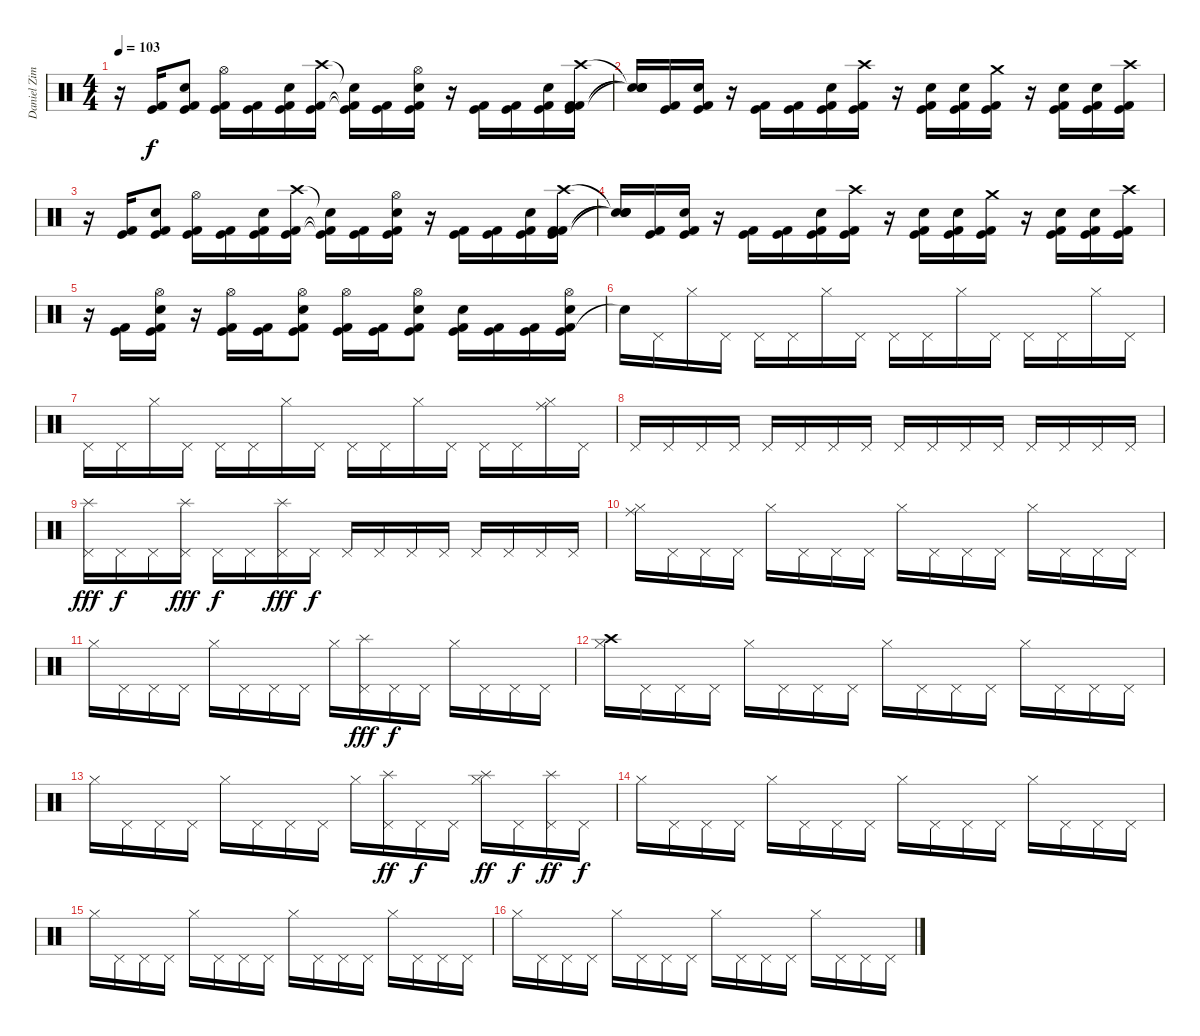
\track ("Daniel Zimmermann - Drums" "Daniel Zim") {instrument percussion}
\staff {score}
\articulation defaults
\ts (4 4)
\tempo 103
\clef neutral
\ks c
r.16{dy f} ("Kick (hit)" "Kick (hit) 2").16 ("Kick (hit)" "Kick (hit) 2" "Electric Snare (hit)").8 ("Kick (hit)" "Kick (hit) 2" "Hi-Hat (open)").16 ("Kick (hit)" "Kick (hit) 2").16 ("Kick (hit)" "Kick (hit) 2" "Electric Snare (hit)").16 ("Kick (hit)" "Kick (hit) 2" "Crash high (hit)").16 ("Kick (hit)"{t} "Kick (hit) 2"{t} "Snare (hit)"{t}).16 ("Kick (hit)" "Kick (hit) 2").16 ("Kick (hit)" "Kick (hit) 2" "Electric Snare (hit)" "Hi-Hat (open)").16 r.16 ("Kick (hit)" "Kick (hit) 2").16 ("Kick (hit)" "Kick (hit) 2").16 ("Kick (hit)" "Kick (hit) 2" "Electric Snare (hit)").16 ("Kick (hit)" "Kick (hit) 2" "Kick (hit) 2" "Crash high (hit)").16 |
("Snare (hit)"{t} "Snare (hit)"{t} "Snare (hit)"{t} "Snare (hit)"{t}).16 ("Kick (hit)" "Kick (hit) 2").16 ("Kick (hit)" "Kick (hit) 2" "Electric Snare (hit)").16 r.16 ("Kick (hit)" "Kick (hit) 2").16 ("Kick (hit)" "Kick (hit) 2").16 ("Kick (hit)" "Kick (hit) 2" "Electric Snare (hit)").16 ("Kick (hit)" "Kick (hit) 2" "Crash high (hit)").16 r.16 ("Kick (hit)" "Kick (hit) 2" "Electric Snare (hit)").16 ("Kick (hit)" "Kick (hit) 2" "Electric Snare (hit)").16 ("Kick (hit)" "Kick (hit) 2" "Crash medium (hit)").16 r.16 ("Kick (hit)" "Kick (hit) 2" "Electric Snare (hit)").16 ("Kick (hit)" "Kick (hit) 2" "Electric Snare (hit)").16 ("Kick (hit)" "Kick (hit) 2" "Crash high (hit)").16 |
r.16 ("Kick (hit)" "Kick (hit) 2").16 ("Kick (hit)" "Kick (hit) 2" "Electric Snare (hit)").8 ("Kick (hit)" "Kick (hit) 2" "Hi-Hat (open)").16 ("Kick (hit)" "Kick (hit) 2").16 ("Kick (hit)" "Kick (hit) 2" "Electric Snare (hit)").16 ("Kick (hit)" "Kick (hit) 2" "Crash high (hit)").16 ("Kick (hit)"{t} "Kick (hit) 2"{t} "Snare (hit)"{t}).16 ("Kick (hit)" "Kick (hit) 2").16 ("Kick (hit)" "Kick (hit) 2" "Electric Snare (hit)" "Hi-Hat (open)").16 r.16 ("Kick (hit)" "Kick (hit) 2").16 ("Kick (hit)" "Kick (hit) 2").16 ("Kick (hit)" "Kick (hit) 2" "Electric Snare (hit)").16 ("Kick (hit)" "Kick (hit) 2" "Kick (hit) 2" "Crash high (hit)").16 |
("Snare (hit)"{t} "Snare (hit)"{t} "Snare (hit)"{t} "Snare (hit)"{t}).16 ("Kick (hit)" "Kick (hit) 2").16 ("Kick (hit)" "Kick (hit) 2" "Electric Snare (hit)").16 r.16 ("Kick (hit)" "Kick (hit) 2").16 ("Kick (hit)" "Kick (hit) 2").16 ("Kick (hit)" "Kick (hit) 2" "Electric Snare (hit)").16 ("Kick (hit)" "Kick (hit) 2" "Crash high (hit)").16 r.16 ("Kick (hit)" "Kick (hit) 2" "Electric Snare (hit)").16 ("Kick (hit)" "Kick (hit) 2" "Electric Snare (hit)").16 ("Kick (hit)" "Kick (hit) 2" "Crash medium (hit)").16 r.16 ("Kick (hit)" "Kick (hit) 2" "Electric Snare (hit)").16 ("Kick (hit)" "Kick (hit) 2" "Electric Snare (hit)").16 ("Kick (hit)" "Kick (hit) 2" "Crash high (hit)").16 |
r.16 ("Kick (hit)" "Kick (hit) 2").16 ("Kick (hit)" "Kick (hit) 2" "Electric Snare (hit)" "Hi-Hat (open)").16 r.16 ("Kick (hit)" "Kick (hit) 2" "Hi-Hat (open)").16 ("Kick (hit)" "Kick (hit) 2").16 ("Kick (hit)" "Kick (hit) 2" "Electric Snare (hit)" "Hi-Hat (open)").8 ("Kick (hit)" "Kick (hit) 2" "Hi-Hat (open)").16 ("Kick (hit)" "Kick (hit) 2").16 ("Kick (hit)" "Kick (hit) 2" "Electric Snare (hit)" "Hi-Hat (open)").8 ("Kick (hit)" "Kick (hit) 2" "Electric Snare (hit)").16 ("Kick (hit)" "Kick (hit) 2").16 ("Kick (hit)" "Kick (hit) 2").16 ("Kick (hit)" "Kick (hit) 2" "Electric Snare (hit)" "Hi-Hat (open)").16 |
"Snare (hit)"{t}.16 "Pedal Hi-Hat (hit)".16 "Hi-Hat (closed)".16 "Pedal Hi-Hat (hit)".16 "Pedal Hi-Hat (hit)".16 "Pedal Hi-Hat (hit)".16 "Hi-Hat (closed)".16 "Pedal Hi-Hat (hit)".16 "Pedal Hi-Hat (hit)".16 "Pedal Hi-Hat (hit)".16 "Hi-Hat (closed)".16 "Pedal Hi-Hat (hit)".16 "Pedal Hi-Hat (hit)".16 "Pedal Hi-Hat (hit)".16 "Hi-Hat (closed)".16 "Pedal Hi-Hat (hit)".16 |
"Pedal Hi-Hat (hit)".16 "Pedal Hi-Hat (hit)".16 "Hi-Hat (closed)".16 "Pedal Hi-Hat (hit)".16 "Pedal Hi-Hat (hit)".16 "Pedal Hi-Hat (hit)".16 "Hi-Hat (closed)".16 "Pedal Hi-Hat (hit)".16 "Pedal Hi-Hat (hit)".16 "Pedal Hi-Hat (hit)".16 "Hi-Hat (closed)".16 "Pedal Hi-Hat (hit)".16 "Pedal Hi-Hat (hit)".16 "Pedal Hi-Hat (hit)".16 ("Hi-Hat (closed)" "Ride (middle)").16 "Pedal Hi-Hat (hit)".16 |
"Pedal Hi-Hat (hit)".16 "Pedal Hi-Hat (hit)".16 "Pedal Hi-Hat (hit)".16 "Pedal Hi-Hat (hit)".16 "Pedal Hi-Hat (hit)".16 "Pedal Hi-Hat (hit)".16 "Pedal Hi-Hat (hit)".16 "Pedal Hi-Hat (hit)".16 "Pedal Hi-Hat (hit)".16 "Pedal Hi-Hat (hit)".16 "Pedal Hi-Hat (hit)".16 "Pedal Hi-Hat (hit)".16 "Pedal Hi-Hat (hit)".16 "Pedal Hi-Hat (hit)".16 "Pedal Hi-Hat (hit)".16 "Pedal Hi-Hat (hit)".16 |
("Pedal Hi-Hat (hit)" "Splash (hit)").16{dy fff} "Pedal Hi-Hat (hit)".16{dy f} "Pedal Hi-Hat (hit)".16 ("Pedal Hi-Hat (hit)" "Splash (hit)").16{dy fff} "Pedal Hi-Hat (hit)".16{dy f} "Pedal Hi-Hat (hit)".16 ("Pedal Hi-Hat (hit)" "Splash (hit)").16{dy fff} "Pedal Hi-Hat (hit)".16{dy f} "Pedal Hi-Hat (hit)".16 "Pedal Hi-Hat (hit)".16 "Pedal Hi-Hat (hit)".16 "Pedal Hi-Hat (hit)".16 "Pedal Hi-Hat (hit)".16 "Pedal Hi-Hat (hit)".16 "Pedal Hi-Hat (hit)".16 "Pedal Hi-Hat (hit)".16 |
("Hi-Hat (closed)" "Ride (middle)").16 "Pedal Hi-Hat (hit)".16 "Pedal Hi-Hat (hit)".16 "Pedal Hi-Hat (hit)".16 "Hi-Hat (closed)".16 "Pedal Hi-Hat (hit)".16 "Pedal Hi-Hat (hit)".16 "Pedal Hi-Hat (hit)".16 "Hi-Hat (closed)".16 "Pedal Hi-Hat (hit)".16 "Pedal Hi-Hat (hit)".16 "Pedal Hi-Hat (hit)".16 "Hi-Hat (closed)".16 "Pedal Hi-Hat (hit)".16 "Pedal Hi-Hat (hit)".16 "Pedal Hi-Hat (hit)".16 |
"Hi-Hat (closed)".16 "Pedal Hi-Hat (hit)".16 "Pedal Hi-Hat (hit)".16 "Pedal Hi-Hat (hit)".16 "Hi-Hat (closed)".16 "Pedal Hi-Hat (hit)".16 "Pedal Hi-Hat (hit)".16 "Pedal Hi-Hat (hit)".16 "Hi-Hat (closed)".16 ("Pedal Hi-Hat (hit)" "Splash (hit)").16{dy fff} "Pedal Hi-Hat (hit)".16{dy f} "Pedal Hi-Hat (hit)".16 "Hi-Hat (closed)".16 "Pedal Hi-Hat (hit)".16 "Pedal Hi-Hat (hit)".16 "Pedal Hi-Hat (hit)".16 |
("Hi-Hat (closed)" "Crash high (hit)").16 "Pedal Hi-Hat (hit)".16 "Pedal Hi-Hat (hit)".16 "Pedal Hi-Hat (hit)".16 "Hi-Hat (closed)".16 "Pedal Hi-Hat (hit)".16 "Pedal Hi-Hat (hit)".16 "Pedal Hi-Hat (hit)".16 "Hi-Hat (closed)".16 "Pedal Hi-Hat (hit)".16 "Pedal Hi-Hat (hit)".16 "Pedal Hi-Hat (hit)".16 "Hi-Hat (closed)".16 "Pedal Hi-Hat (hit)".16 "Pedal Hi-Hat (hit)".16 "Pedal Hi-Hat (hit)".16 |
"Hi-Hat (closed)".16 "Pedal Hi-Hat (hit)".16 "Pedal Hi-Hat (hit)".16 "Pedal Hi-Hat (hit)".16 "Hi-Hat (closed)".16 "Pedal Hi-Hat (hit)".16 "Pedal Hi-Hat (hit)".16 "Pedal Hi-Hat (hit)".16 "Hi-Hat (closed)".16 ("Pedal Hi-Hat (hit)" "Splash (hit)").16{dy ff} "Pedal Hi-Hat (hit)".16{dy f} "Pedal Hi-Hat (hit)".16 ("Hi-Hat (closed)" "Splash (hit)").16{dy ff} "Pedal Hi-Hat (hit)".16{dy f} ("Pedal Hi-Hat (hit)" "Splash (hit)").16{dy ff} "Pedal Hi-Hat (hit)".16{dy f} |
"Hi-Hat (closed)".16 "Pedal Hi-Hat (hit)".16 "Pedal Hi-Hat (hit)".16 "Pedal Hi-Hat (hit)".16 "Hi-Hat (closed)".16 "Pedal Hi-Hat (hit)".16 "Pedal Hi-Hat (hit)".16 "Pedal Hi-Hat (hit)".16 "Hi-Hat (closed)".16 "Pedal Hi-Hat (hit)".16 "Pedal Hi-Hat (hit)".16 "Pedal Hi-Hat (hit)".16 "Hi-Hat (closed)".16 "Pedal Hi-Hat (hit)".16 "Pedal Hi-Hat (hit)".16 "Pedal Hi-Hat (hit)".16 |
"Hi-Hat (closed)".16 "Pedal Hi-Hat (hit)".16 "Pedal Hi-Hat (hit)".16 "Pedal Hi-Hat (hit)".16 "Hi-Hat (closed)".16 "Pedal Hi-Hat (hit)".16 "Pedal Hi-Hat (hit)".16 "Pedal Hi-Hat (hit)".16 "Hi-Hat (closed)".16 "Pedal Hi-Hat (hit)".16 "Pedal Hi-Hat (hit)".16 "Pedal Hi-Hat (hit)".16 "Hi-Hat (closed)".16 "Pedal Hi-Hat (hit)".16 "Pedal Hi-Hat (hit)".16 "Pedal Hi-Hat (hit)".16 |
"Hi-Hat (closed)".16 "Pedal Hi-Hat (hit)".16 "Pedal Hi-Hat (hit)".16 "Pedal Hi-Hat (hit)".16 "Hi-Hat (closed)".16 "Pedal Hi-Hat (hit)".16 "Pedal Hi-Hat (hit)".16 "Pedal Hi-Hat (hit)".16 "Hi-Hat (closed)".16 "Pedal Hi-Hat (hit)".16 "Pedal Hi-Hat (hit)".16 "Pedal Hi-Hat (hit)".16 "Hi-Hat (closed)".16 "Pedal Hi-Hat (hit)".16 "Pedal Hi-Hat (hit)".16 "Pedal Hi-Hat (hit)".16
